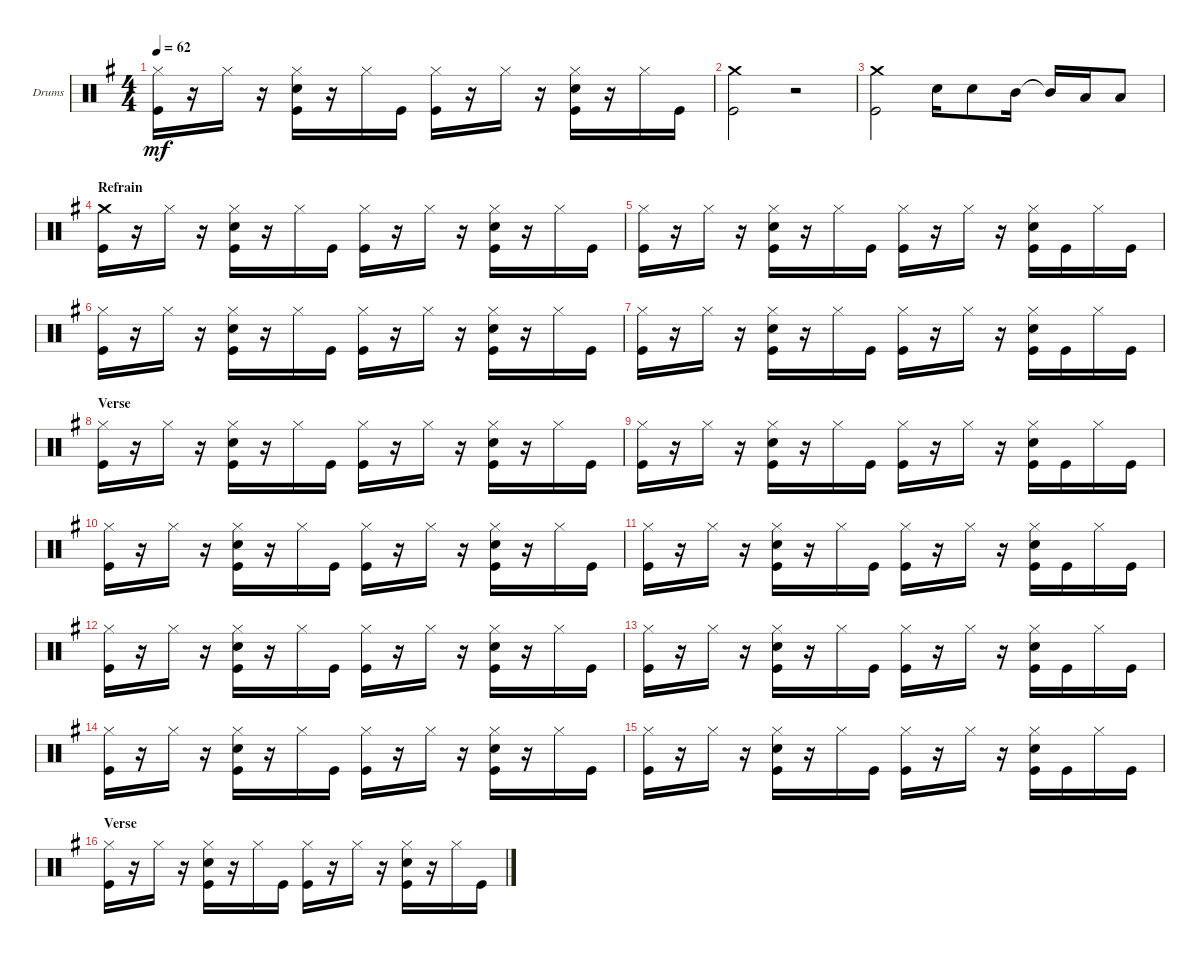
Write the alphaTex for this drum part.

\defaultSystemsLayout 4
\bracketExtendMode groupsimilarinstruments
\firstSystemTrackNameOrientation horizontal
\otherSystemsTrackNameOrientation horizontal
\track ("Drumkit" "Drums") {instrument percussion}
\staff {score}
\articulation defaults
\ts (4 4)
\tempo 62
\clef neutral
\ks g
("Hi-Hat (closed)" "Kick (hit)").16{dy mf} r.16 "Hi-Hat (closed)".16 r.16 ("Hi-Hat (closed)" "Kick (hit)" "Snare (hit) 2").16 r.16 "Hi-Hat (closed)".16 "Kick (hit)".16 ("Kick (hit)" "Hi-Hat (closed)").16 r.16 "Hi-Hat (closed)".16 r.16 ("Hi-Hat (closed)" "Kick (hit)" "Snare (hit) 2").16 r.16 "Hi-Hat (closed)".16 "Kick (hit)".16 |
("Crash medium (hit)" "Kick (hit)").2 r.2 |
("Crash medium (hit)" "Kick (hit)").2 "Snare (hit) 2".16 "Snare (hit) 2".8 "Mid Tom (hit)".16 "Mid Tom (hit)"{t}.16 "Low Tom (hit)".16 "Low Tom (hit)".8 |
\section ("" "Refrain")
("Kick (hit)" "Crash medium (hit)").16 r.16 "Hi-Hat (closed)".16 r.16 ("Hi-Hat (closed)" "Kick (hit)" "Snare (hit) 2").16 r.16 "Hi-Hat (closed)".16 "Kick (hit)".16 ("Kick (hit)" "Hi-Hat (closed)").16 r.16 "Hi-Hat (closed)".16 r.16 ("Hi-Hat (closed)" "Kick (hit)" "Snare (hit) 2").16 r.16 "Hi-Hat (closed)".16 "Kick (hit)".16 |
("Hi-Hat (closed)" "Kick (hit)").16 r.16 "Hi-Hat (closed)".16 r.16 ("Hi-Hat (closed)" "Kick (hit)" "Snare (hit) 2").16 r.16 "Hi-Hat (closed)".16 "Kick (hit)".16 ("Kick (hit)" "Hi-Hat (closed)").16 r.16 "Hi-Hat (closed)".16 r.16 ("Hi-Hat (closed)" "Kick (hit)" "Snare (hit) 2").16 "Kick (hit)".16 "Hi-Hat (closed)".16 "Kick (hit)".16 |
("Hi-Hat (closed)" "Kick (hit)").16 r.16 "Hi-Hat (closed)".16 r.16 ("Hi-Hat (closed)" "Kick (hit)" "Snare (hit) 2").16 r.16 "Hi-Hat (closed)".16 "Kick (hit)".16 ("Kick (hit)" "Hi-Hat (closed)").16 r.16 "Hi-Hat (closed)".16 r.16 ("Hi-Hat (closed)" "Kick (hit)" "Snare (hit) 2").16 r.16 "Hi-Hat (closed)".16 "Kick (hit)".16 |
("Hi-Hat (closed)" "Kick (hit)").16 r.16 "Hi-Hat (closed)".16 r.16 ("Hi-Hat (closed)" "Kick (hit)" "Snare (hit) 2").16 r.16 "Hi-Hat (closed)".16 "Kick (hit)".16 ("Kick (hit)" "Hi-Hat (closed)").16 r.16 "Hi-Hat (closed)".16 r.16 ("Hi-Hat (closed)" "Kick (hit)" "Snare (hit) 2").16 "Kick (hit)".16 "Hi-Hat (closed)".16 "Kick (hit)".16 |
\section ("" "Verse")
("Hi-Hat (closed)" "Kick (hit)").16 r.16 "Hi-Hat (closed)".16 r.16 ("Hi-Hat (closed)" "Kick (hit)" "Snare (hit) 2").16 r.16 "Hi-Hat (closed)".16 "Kick (hit)".16 ("Kick (hit)" "Hi-Hat (closed)").16 r.16 "Hi-Hat (closed)".16 r.16 ("Hi-Hat (closed)" "Kick (hit)" "Snare (hit) 2").16 r.16 "Hi-Hat (closed)".16 "Kick (hit)".16 |
("Hi-Hat (closed)" "Kick (hit)").16 r.16 "Hi-Hat (closed)".16 r.16 ("Hi-Hat (closed)" "Kick (hit)" "Snare (hit) 2").16 r.16 "Hi-Hat (closed)".16 "Kick (hit)".16 ("Kick (hit)" "Hi-Hat (closed)").16 r.16 "Hi-Hat (closed)".16 r.16 ("Hi-Hat (closed)" "Kick (hit)" "Snare (hit) 2").16 "Kick (hit)".16 "Hi-Hat (closed)".16 "Kick (hit)".16 |
("Hi-Hat (closed)" "Kick (hit)").16 r.16 "Hi-Hat (closed)".16 r.16 ("Hi-Hat (closed)" "Kick (hit)" "Snare (hit) 2").16 r.16 "Hi-Hat (closed)".16 "Kick (hit)".16 ("Kick (hit)" "Hi-Hat (closed)").16 r.16 "Hi-Hat (closed)".16 r.16 ("Hi-Hat (closed)" "Kick (hit)" "Snare (hit) 2").16 r.16 "Hi-Hat (closed)".16 "Kick (hit)".16 |
("Hi-Hat (closed)" "Kick (hit)").16 r.16 "Hi-Hat (closed)".16 r.16 ("Hi-Hat (closed)" "Kick (hit)" "Snare (hit) 2").16 r.16 "Hi-Hat (closed)".16 "Kick (hit)".16 ("Kick (hit)" "Hi-Hat (closed)").16 r.16 "Hi-Hat (closed)".16 r.16 ("Hi-Hat (closed)" "Kick (hit)" "Snare (hit) 2").16 "Kick (hit)".16 "Hi-Hat (closed)".16 "Kick (hit)".16 |
("Hi-Hat (closed)" "Kick (hit)").16 r.16 "Hi-Hat (closed)".16 r.16 ("Hi-Hat (closed)" "Kick (hit)" "Snare (hit) 2").16 r.16 "Hi-Hat (closed)".16 "Kick (hit)".16 ("Kick (hit)" "Hi-Hat (closed)").16 r.16 "Hi-Hat (closed)".16 r.16 ("Hi-Hat (closed)" "Kick (hit)" "Snare (hit) 2").16 r.16 "Hi-Hat (closed)".16 "Kick (hit)".16 |
("Hi-Hat (closed)" "Kick (hit)").16 r.16 "Hi-Hat (closed)".16 r.16 ("Hi-Hat (closed)" "Kick (hit)" "Snare (hit) 2").16 r.16 "Hi-Hat (closed)".16 "Kick (hit)".16 ("Kick (hit)" "Hi-Hat (closed)").16 r.16 "Hi-Hat (closed)".16 r.16 ("Hi-Hat (closed)" "Kick (hit)" "Snare (hit) 2").16 "Kick (hit)".16 "Hi-Hat (closed)".16 "Kick (hit)".16 |
("Hi-Hat (closed)" "Kick (hit)").16 r.16 "Hi-Hat (closed)".16 r.16 ("Hi-Hat (closed)" "Kick (hit)" "Snare (hit) 2").16 r.16 "Hi-Hat (closed)".16 "Kick (hit)".16 ("Kick (hit)" "Hi-Hat (closed)").16 r.16 "Hi-Hat (closed)".16 r.16 ("Hi-Hat (closed)" "Kick (hit)" "Snare (hit) 2").16 r.16 "Hi-Hat (closed)".16 "Kick (hit)".16 |
("Hi-Hat (closed)" "Kick (hit)").16 r.16 "Hi-Hat (closed)".16 r.16 ("Hi-Hat (closed)" "Kick (hit)" "Snare (hit) 2").16 r.16 "Hi-Hat (closed)".16 "Kick (hit)".16 ("Kick (hit)" "Hi-Hat (closed)").16 r.16 "Hi-Hat (closed)".16 r.16 ("Hi-Hat (closed)" "Kick (hit)" "Snare (hit) 2").16 "Kick (hit)".16 "Hi-Hat (closed)".16 "Kick (hit)".16 |
\section ("" "Verse")
("Hi-Hat (closed)" "Kick (hit)").16 r.16 "Hi-Hat (closed)".16 r.16 ("Hi-Hat (closed)" "Kick (hit)" "Snare (hit) 2").16 r.16 "Hi-Hat (closed)".16 "Kick (hit)".16 ("Kick (hit)" "Hi-Hat (closed)").16 r.16 "Hi-Hat (closed)".16 r.16 ("Hi-Hat (closed)" "Kick (hit)" "Snare (hit) 2").16 r.16 "Hi-Hat (closed)".16 "Kick (hit)".16
